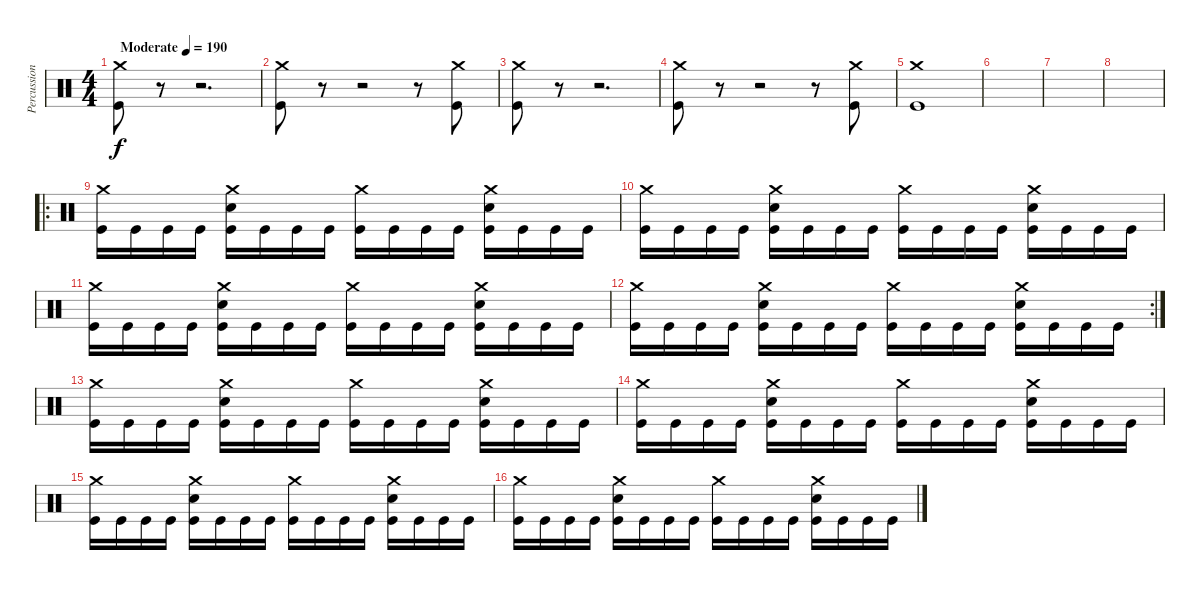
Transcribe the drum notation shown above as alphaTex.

\track ("Percussion" "Percussion") {instrument percussion}
\staff {score}
\articulation defaults
\ts (4 4)
\tempo (190 "Moderate")
\clef neutral
\ks c
("Crash medium (hit)" "Kick (hit)").8{dy f} r.8{volume 0} r.2{d} |
("Crash medium (hit)" "Kick (hit)").8{volume 13} r.8{volume 0} r.2 r.8 ("Crash medium (hit)" "Kick (hit)").8{volume 13} |
("Crash medium (hit)" "Kick (hit)").8 r.8{volume 0} r.2{d} |
("Crash medium (hit)" "Kick (hit)").8{volume 13} r.8{volume 0} r.2 r.8 ("Crash medium (hit)" "Kick (hit)").8{volume 13} |
("Crash medium (hit)" "Kick (hit)").1 |
|
|
|
\ro
("Crash medium (hit)" "Kick (hit)").16 "Kick (hit)".16 "Kick (hit)".16 "Kick (hit)".16 ("Crash medium (hit)" "Snare (hit) 2" "Kick (hit)").16 "Kick (hit)".16 "Kick (hit)".16 "Kick (hit)".16 ("Crash medium (hit)" "Kick (hit)").16 "Kick (hit)".16 "Kick (hit)".16 "Kick (hit)".16 ("Crash medium (hit)" "Snare (hit) 2" "Kick (hit)").16 "Kick (hit)".16 "Kick (hit)".16 "Kick (hit)".16 |
("Crash medium (hit)" "Kick (hit)").16 "Kick (hit)".16 "Kick (hit)".16 "Kick (hit)".16 ("Crash medium (hit)" "Snare (hit) 2" "Kick (hit)").16 "Kick (hit)".16 "Kick (hit)".16 "Kick (hit)".16 ("Crash medium (hit)" "Kick (hit)").16 "Kick (hit)".16 "Kick (hit)".16 "Kick (hit)".16 ("Crash medium (hit)" "Snare (hit) 2" "Kick (hit)").16 "Kick (hit)".16 "Kick (hit)".16 "Kick (hit)".16 |
("Crash medium (hit)" "Kick (hit)").16 "Kick (hit)".16 "Kick (hit)".16 "Kick (hit)".16 ("Crash medium (hit)" "Snare (hit) 2" "Kick (hit)").16 "Kick (hit)".16 "Kick (hit)".16 "Kick (hit)".16 ("Crash medium (hit)" "Kick (hit)").16 "Kick (hit)".16 "Kick (hit)".16 "Kick (hit)".16 ("Crash medium (hit)" "Snare (hit) 2" "Kick (hit)").16 "Kick (hit)".16 "Kick (hit)".16 "Kick (hit)".16 |
\rc 2
("Crash medium (hit)" "Kick (hit)").16 "Kick (hit)".16 "Kick (hit)".16 "Kick (hit)".16 ("Crash medium (hit)" "Snare (hit) 2" "Kick (hit)").16 "Kick (hit)".16 "Kick (hit)".16 "Kick (hit)".16 ("Crash medium (hit)" "Kick (hit)").16 "Kick (hit)".16 "Kick (hit)".16 "Kick (hit)".16 ("Crash medium (hit)" "Snare (hit) 2" "Kick (hit)").16 "Kick (hit)".16 "Kick (hit)".16 "Kick (hit)".16 |
("Crash medium (hit)" "Kick (hit)").16 "Kick (hit)".16 "Kick (hit)".16 "Kick (hit)".16 ("Crash medium (hit)" "Snare (hit) 2" "Kick (hit)").16 "Kick (hit)".16 "Kick (hit)".16 "Kick (hit)".16 ("Crash medium (hit)" "Kick (hit)").16 "Kick (hit)".16 "Kick (hit)".16 "Kick (hit)".16 ("Crash medium (hit)" "Snare (hit) 2" "Kick (hit)").16 "Kick (hit)".16 "Kick (hit)".16 "Kick (hit)".16 |
("Crash medium (hit)" "Kick (hit)").16 "Kick (hit)".16 "Kick (hit)".16 "Kick (hit)".16 ("Crash medium (hit)" "Snare (hit) 2" "Kick (hit)").16 "Kick (hit)".16 "Kick (hit)".16 "Kick (hit)".16 ("Crash medium (hit)" "Kick (hit)").16 "Kick (hit)".16 "Kick (hit)".16 "Kick (hit)".16 ("Crash medium (hit)" "Snare (hit) 2" "Kick (hit)").16 "Kick (hit)".16 "Kick (hit)".16 "Kick (hit)".16 |
("Crash medium (hit)" "Kick (hit)").16 "Kick (hit)".16 "Kick (hit)".16 "Kick (hit)".16 ("Crash medium (hit)" "Snare (hit) 2" "Kick (hit)").16 "Kick (hit)".16 "Kick (hit)".16 "Kick (hit)".16 ("Crash medium (hit)" "Kick (hit)").16 "Kick (hit)".16 "Kick (hit)".16 "Kick (hit)".16 ("Crash medium (hit)" "Snare (hit) 2" "Kick (hit)").16 "Kick (hit)".16 "Kick (hit)".16 "Kick (hit)".16 |
("Crash medium (hit)" "Kick (hit)").16 "Kick (hit)".16 "Kick (hit)".16 "Kick (hit)".16 ("Crash medium (hit)" "Snare (hit) 2" "Kick (hit)").16 "Kick (hit)".16 "Kick (hit)".16 "Kick (hit)".16 ("Crash medium (hit)" "Kick (hit)").16 "Kick (hit)".16 "Kick (hit)".16 "Kick (hit)".16 ("Crash medium (hit)" "Snare (hit) 2" "Kick (hit)").16 "Kick (hit)".16 "Kick (hit)".16 "Kick (hit)".16
